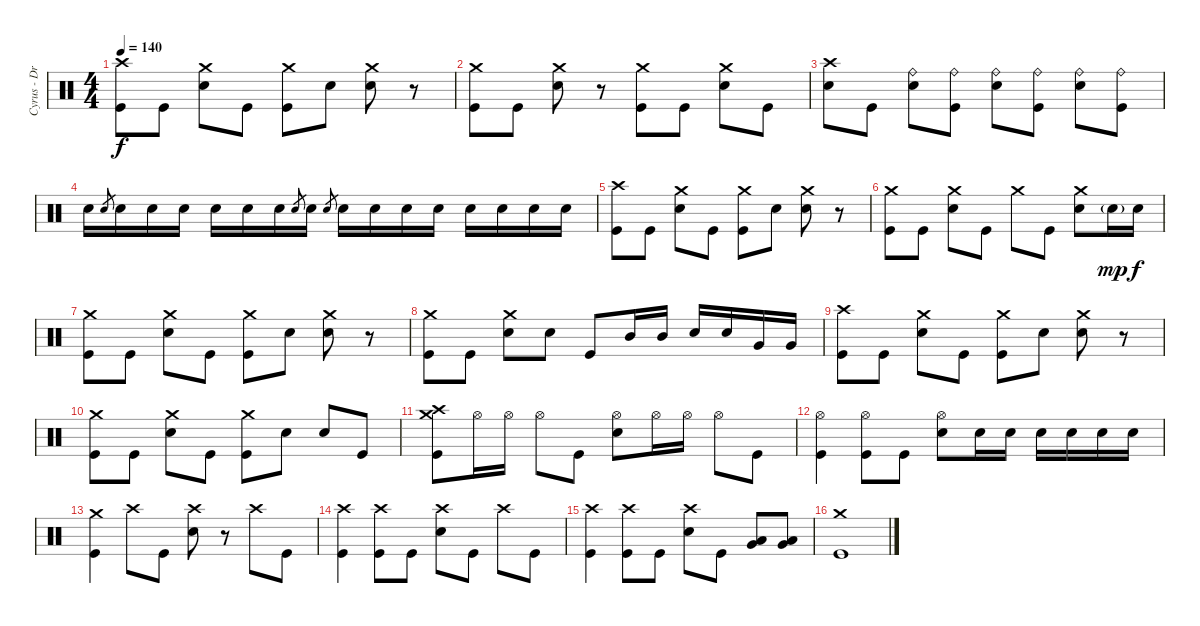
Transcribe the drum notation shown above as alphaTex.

\track ("Cyrus - Drums" "Cyrus - Dr") {instrument percussion}
\staff {score}
\articulation defaults
\ts (4 4)
\tempo 140
\clef neutral
\ks c
("Crash high (hit)" "Kick (hit)").8{dy f} "Kick (hit)".8 ("Crash medium (hit)" "Electric Snare (hit)").8 "Kick (hit)".8 ("Crash medium (hit)" "Kick (hit)").8 "Electric Snare (hit)".8 ("Crash medium (hit)" "Electric Snare (hit)").8 r.8 |
("Crash medium (hit)" "Kick (hit)").8 "Kick (hit)".8 ("Crash medium (hit)" "Electric Snare (hit)").8 r.8 ("Crash medium (hit)" "Kick (hit)").8 "Kick (hit)".8 ("Crash medium (hit)" "Electric Snare (hit)").8 "Kick (hit)".8 |
("Crash high (hit)" "Electric Snare (hit)").8 "Kick (hit)".8 ("Ride (bell)" "Electric Snare (hit)").8 ("Ride (bell)" "Kick (hit)").8 ("Ride (bell)" "Electric Snare (hit)").8 ("Ride (bell)" "Kick (hit)").8 ("Ride (bell)" "Electric Snare (hit)").8 ("Ride (bell)" "Kick (hit)").8 |
"Electric Snare (hit)".16 "Electric Snare (hit)".8{gr} "Electric Snare (hit)".16 "Electric Snare (hit)".16 "Electric Snare (hit)".16 "Electric Snare (hit)".16 "Electric Snare (hit)".16 "Electric Snare (hit)".16 "Electric Snare (hit)".8{gr} "Electric Snare (hit)".16 "Electric Snare (hit)".8{gr} "Electric Snare (hit)".16 "Electric Snare (hit)".16 "Electric Snare (hit)".16 "Electric Snare (hit)".16 "Electric Snare (hit)".16 "Electric Snare (hit)".16 "Electric Snare (hit)".16 "Electric Snare (hit)".16 |
("Crash high (hit)" "Kick (hit)").8 "Kick (hit)".8 ("Crash medium (hit)" "Electric Snare (hit)").8 "Kick (hit)".8 ("Crash medium (hit)" "Kick (hit)").8 "Electric Snare (hit)".8 ("Crash medium (hit)" "Electric Snare (hit)").8 r.8 |
("Crash medium (hit)" "Kick (hit)").8 "Kick (hit)".8 ("Crash medium (hit)" "Electric Snare (hit)").8 "Kick (hit)".8 "Crash medium (hit)".8 "Kick (hit)".8 ("Crash medium (hit)" "Electric Snare (hit)").8 "Electric Snare (hit)"{g}.16{dy mp} "Electric Snare (hit)".16{dy f} |
("Crash medium (hit)" "Kick (hit)").8 "Kick (hit)".8 ("Crash medium (hit)" "Electric Snare (hit)").8 "Kick (hit)".8 ("Crash medium (hit)" "Kick (hit)").8 "Electric Snare (hit)".8 ("Crash medium (hit)" "Electric Snare (hit)").8 r.8 |
("Crash medium (hit)" "Kick (hit)").8 "Kick (hit)".8 ("Crash medium (hit)" "Electric Snare (hit)").8 "Electric Snare (hit)".8 "Kick (hit)".8 "Mid Tom (hit)".16 "Mid Tom (hit)".16 "Electric Snare (hit)".16 "Electric Snare (hit)".16 "Very Low Tom (hit)".16 "Very Low Tom (hit)".16 |
("Crash high (hit)" "Kick (hit)").8 "Kick (hit)".8 ("Crash medium (hit)" "Electric Snare (hit)").8 "Kick (hit)".8 ("Crash medium (hit)" "Kick (hit)").8 "Electric Snare (hit)".8 ("Crash medium (hit)" "Electric Snare (hit)").8 r.8 |
("Crash medium (hit)" "Kick (hit)").8 "Kick (hit)".8 ("Crash medium (hit)" "Electric Snare (hit)").8 "Kick (hit)".8 ("Crash medium (hit)" "Kick (hit)").8 "Electric Snare (hit)".8 "Electric Snare (hit)".8 "Kick (hit)".8 |
("Crash medium (hit)" "Crash high (hit)" "Kick (hit)").8 "Hi-Hat (open)".16 "Hi-Hat (open)".16 "Hi-Hat (open)".8 "Kick (hit)".8 ("Hi-Hat (open)" "Electric Snare (hit)").8 "Hi-Hat (open)".16 "Hi-Hat (open)".16 "Hi-Hat (open)".8 "Kick (hit)".8 |
("Hi-Hat (open)" "Kick (hit)").4 ("Hi-Hat (open)" "Kick (hit)").8 "Kick (hit)".8 ("Hi-Hat (open)" "Electric Snare (hit)").8 "Electric Snare (hit)".16 "Electric Snare (hit)".16 "Electric Snare (hit)".16 "Electric Snare (hit)".16 "Electric Snare (hit)".16 "Electric Snare (hit)".16 |
("Crash medium (hit)" "Kick (hit)").4 "Crash high (hit)".8 "Kick (hit)".8 ("Crash high (hit)" "Electric Snare (hit)").8 r.8 "Crash high (hit)".8 "Kick (hit)".8 |
("Crash high (hit)" "Kick (hit)").4 ("Crash high (hit)" "Kick (hit)").8 "Kick (hit)".8 ("Crash high (hit)" "Electric Snare (hit)").8 "Kick (hit)".8 "Crash high (hit)".8 "Kick (hit)".8 |
("Crash high (hit)" "Kick (hit)").4 ("Crash high (hit)" "Kick (hit)").8 "Kick (hit)".8 ("Crash high (hit)" "Electric Snare (hit)").8 "Kick (hit)".8 ("Low Floor Tom (hit)" "Very Low Tom (hit)").8 ("Low Floor Tom (hit)" "Very Low Tom (hit)").8 |
("Crash medium (hit)" "Kick (hit)").1
